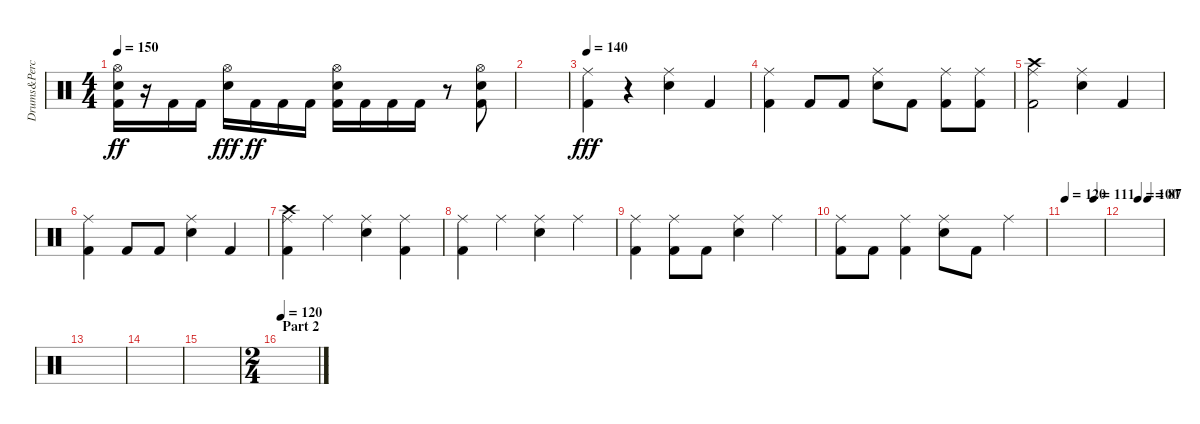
\track ("Drums&Percusion" "Drums&Perc") {instrument percussion}
\staff {score}
\articulation defaults
\ts (4 4)
\tempo 150
\clef neutral
\ks c
("Hi-Hat (open)" "Snare (hit) 2" "Kick (hit) 2").16{dy ff} r.16 "Kick (hit) 2".16 "Kick (hit) 2".16 ("Hi-Hat (open)" "Snare (hit) 2").16{dy fff} "Kick (hit) 2".16{dy ff} "Kick (hit) 2".16 "Kick (hit) 2".16 ("Hi-Hat (open)" "Snare (hit) 2" "Kick (hit) 2").16 "Kick (hit) 2".16 "Kick (hit) 2".16 "Kick (hit) 2".16 r.8 ("Hi-Hat (open)" "Snare (hit) 2" "Kick (hit) 2").8 |
|
\tempo 140
("Ride (middle)" "Kick (hit) 2").4{dy fff volume 14} r.4 ("Ride (middle)" "Snare (hit) 2").4 "Kick (hit) 2".4 |
("Ride (middle)" "Kick (hit) 2").4 "Kick (hit) 2".8 "Kick (hit) 2".8 ("Ride (middle)" "Snare (hit) 2").8 "Kick (hit) 2".8 ("Ride (middle)" "Kick (hit) 2").8 ("Ride (middle)" "Kick (hit) 2").8 |
("Ride (middle)" "Crash high (hit)" "Kick (hit) 2").2 ("Ride (middle)" "Snare (hit) 2").4 "Kick (hit) 2".4 |
("Ride (middle)" "Kick (hit) 2").4 "Kick (hit) 2".8 "Kick (hit) 2".8 ("Ride (middle)" "Snare (hit) 2").4 "Kick (hit) 2".4 |
("Ride (middle)" "Crash high (hit)" "Kick (hit) 2").4 "Ride (middle)".4 ("Ride (middle)" "Snare (hit) 2").4 ("Ride (middle)" "Kick (hit) 2").4 |
("Ride (middle)" "Kick (hit) 2").4 "Ride (middle)".4 ("Ride (middle)" "Snare (hit) 2").4 "Ride (middle)".4 |
("Ride (middle)" "Kick (hit) 2").4 ("Ride (middle)" "Kick (hit) 2").8 "Kick (hit) 2".8 ("Ride (middle)" "Snare (hit) 2").4 "Ride (middle)".4 |
("Ride (middle)" "Kick (hit) 2").8 "Kick (hit) 2".8 ("Ride (middle)" "Kick (hit) 2").4 ("Ride (middle)" "Snare (hit) 2").8 "Kick (hit) 2".8 "Ride (middle)".4 |
\tempo 120
\tempo (111 0.75)
|
\tempo (100 0.375)
\tempo (87 0.625)
|
|
|
|
\ts (2 4)
\section ("" "Part 2")
\tempo 120
